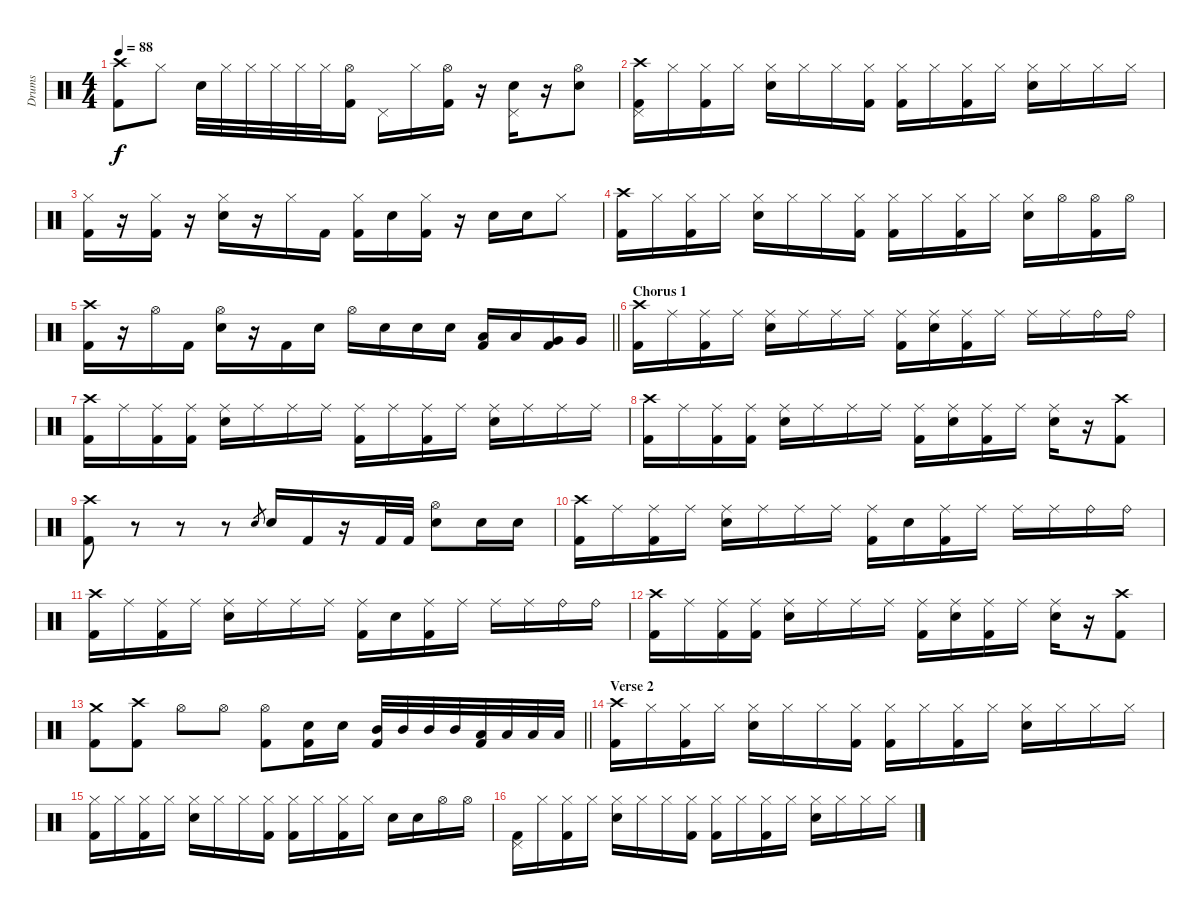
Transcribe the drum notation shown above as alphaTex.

\track ("Drums" "Drums") {instrument percussion}
\staff {score}
\articulation defaults
\ts (4 4)
\tempo 88
\clef neutral
\ks c
("Kick (hit) 2" "Crash high (hit)").8{dy f} "Hi-Hat (closed)".8 "Snare (hit) 2".32 "Hi-Hat (closed)".32 "Hi-Hat (closed)".32 "Hi-Hat (closed)".32 "Hi-Hat (closed)".32 "Hi-Hat (closed)".32 ("Kick (hit) 2" "Hi-Hat (open)").16 "Pedal Hi-Hat (hit)".16 "Hi-Hat (closed)".16 ("Kick (hit) 2" "Hi-Hat (open)").16 r.16 ("Snare (hit) 2" "Pedal Hi-Hat (hit)").16 r.16 ("Snare (hit) 2" "Hi-Hat (open)").8 |
("Pedal Hi-Hat (hit)" "Kick (hit) 2" "Crash high (hit)").16 "Hi-Hat (closed)".16 ("Kick (hit) 2" "Hi-Hat (closed)").16 "Hi-Hat (closed)".16 ("Snare (hit) 2" "Hi-Hat (closed)").16 "Hi-Hat (closed)".16 "Hi-Hat (closed)".16 ("Kick (hit) 2" "Hi-Hat (closed)").16 ("Kick (hit) 2" "Hi-Hat (closed)").16 "Hi-Hat (closed)".16 ("Kick (hit) 2" "Hi-Hat (closed)").16 "Hi-Hat (closed)".16 ("Snare (hit) 2" "Hi-Hat (closed)").16 "Hi-Hat (closed)".16 "Hi-Hat (closed)".16 "Hi-Hat (closed)".16 |
("Kick (hit) 2" "Hi-Hat (closed)").16 r.16 ("Kick (hit) 2" "Hi-Hat (closed)").16 r.16 ("Snare (hit) 2" "Hi-Hat (closed)").16 r.16 "Hi-Hat (closed)".16 "Kick (hit) 2".16 ("Kick (hit) 2" "Hi-Hat (closed)").16 "Snare (hit) 2".16 ("Kick (hit) 2" "Hi-Hat (closed)").16 r.16 "Snare (hit) 2".16 "Snare (hit) 2".16 "Hi-Hat (closed)".8 |
("Kick (hit) 2" "Crash high (hit)").16 "Hi-Hat (closed)".16 ("Kick (hit) 2" "Hi-Hat (closed)").16 "Hi-Hat (closed)".16 ("Snare (hit) 2" "Hi-Hat (closed)").16 "Hi-Hat (closed)".16 "Hi-Hat (closed)".16 ("Kick (hit) 2" "Hi-Hat (closed)").16 ("Kick (hit) 2" "Hi-Hat (closed)").16 "Hi-Hat (closed)".16 ("Kick (hit) 2" "Hi-Hat (closed)").16 "Hi-Hat (closed)".16 ("Snare (hit) 2" "Hi-Hat (closed)").16 "Hi-Hat (open)".16 ("Hi-Hat (open)" "Kick (hit) 2").16 "Hi-Hat (open)".16 |
\barLineRight lightlight
("Kick (hit) 2" "Crash high (hit)").16 r.16 "Hi-Hat (open)".16 "Kick (hit) 2".16 ("Snare (hit) 2" "Hi-Hat (open)").16 r.16 "Kick (hit) 2".16 "Snare (hit) 2".16 "Hi-Hat (open)".16 "Snare (hit) 2".16 "Snare (hit) 2".16 "Snare (hit) 2".16 ("Low Tom (hit)" "Kick (hit) 2").16 "Low Tom (hit)".16 ("Very Low Tom (hit)" "Kick (hit) 2").16 "Very Low Tom (hit)".16 |
\section ("" "Chorus 1")
("Kick (hit) 2" "Crash high (hit)").16 "Ride (middle)".16 ("Kick (hit) 2" "Ride (middle)").16 "Ride (middle)".16 ("Snare (hit) 2" "Ride (middle)").16 "Ride (middle)".16 "Ride (middle)".16 "Ride (middle)".16 ("Kick (hit) 2" "Ride (middle)").16 ("Snare (hit) 2" "Ride (middle)").16 ("Kick (hit) 2" "Ride (middle)").16 "Ride (middle)".16 "Ride (middle)".16 "Ride (middle)".16 "Ride (bell)".16 "Ride (bell)".16 |
("Kick (hit) 2" "Crash high (hit)").16 "Ride (middle)".16 ("Kick (hit) 2" "Ride (middle)").16 ("Ride (middle)" "Kick (hit) 2").16 ("Snare (hit) 2" "Ride (middle)").16 "Ride (middle)".16 "Ride (middle)".16 "Ride (middle)".16 ("Kick (hit) 2" "Ride (middle)").16 "Ride (middle)".16 ("Kick (hit) 2" "Ride (middle)").16 "Ride (middle)".16 ("Ride (middle)" "Snare (hit) 2").16 "Ride (middle)".16 "Ride (middle)".16 "Ride (middle)".16 |
("Kick (hit) 2" "Crash high (hit)").16 "Ride (middle)".16 ("Kick (hit) 2" "Ride (middle)").16 ("Ride (middle)" "Kick (hit) 2").16 ("Snare (hit) 2" "Ride (middle)").16 "Ride (middle)".16 "Ride (middle)".16 "Ride (middle)".16 ("Kick (hit) 2" "Ride (middle)").16 ("Ride (middle)" "Snare (hit) 2").16 ("Kick (hit) 2" "Ride (middle)").16 "Ride (middle)".16 ("Ride (middle)" "Snare (hit) 2").16 r.16 ("Kick (hit) 2" "Crash high (hit)").8 |
("Crash high (hit)" "Kick (hit) 2").8 r.8 r.8 r.8 "Snare (hit) 2".8{gr} "Snare (hit) 2".16 "Kick (hit) 2".16 r.16 "Kick (hit) 2".32 "Kick (hit) 2".32 ("Snare (hit) 2" "Hi-Hat (open)").8 "Snare (hit) 2".16 "Snare (hit) 2".16 |
("Kick (hit) 2" "Crash high (hit)").16 "Ride (middle)".16 ("Kick (hit) 2" "Ride (middle)").16 "Ride (middle)".16 ("Snare (hit) 2" "Ride (middle)").16 "Ride (middle)".16 "Ride (middle)".16 "Ride (middle)".16 ("Kick (hit) 2" "Ride (middle)").16 "Snare (hit) 2".16 ("Kick (hit) 2" "Ride (middle)").16 "Ride (middle)".16 "Ride (middle)".16 "Ride (middle)".16 "Ride (bell)".16 "Ride (bell)".16 |
("Kick (hit) 2" "Crash high (hit)").16 "Ride (middle)".16 ("Kick (hit) 2" "Ride (middle)").16 "Ride (middle)".16 ("Snare (hit) 2" "Ride (middle)").16 "Ride (middle)".16 "Ride (middle)".16 "Ride (middle)".16 ("Kick (hit) 2" "Ride (middle)").16 "Snare (hit) 2".16 ("Kick (hit) 2" "Ride (middle)").16 "Ride (middle)".16 "Ride (middle)".16 "Ride (middle)".16 "Ride (bell)".16 "Ride (bell)".16 |
("Kick (hit) 2" "Crash high (hit)").16 "Ride (middle)".16 ("Kick (hit) 2" "Ride (middle)").16 ("Ride (middle)" "Kick (hit) 2").16 ("Snare (hit) 2" "Ride (middle)").16 "Ride (middle)".16 "Ride (middle)".16 "Ride (middle)".16 ("Kick (hit) 2" "Ride (middle)").16 ("Ride (middle)" "Snare (hit) 2").16 ("Kick (hit) 2" "Ride (middle)").16 "Ride (middle)".16 ("Ride (middle)" "Snare (hit) 2").16 r.16 ("Kick (hit) 2" "Crash high (hit)").8 |
\barLineRight lightlight
("Kick (hit) 2" "Crash medium (hit)").8 ("Crash high (hit)" "Kick (hit) 2").8 "Hi-Hat (open)".8 "Hi-Hat (open)".8 ("Kick (hit) 2" "Hi-Hat (open)").8 ("Snare (hit) 2" "Kick (hit) 2").16 "Snare (hit) 2".16 ("Mid Tom (hit)" "Kick (hit) 2").32 "Mid Tom (hit)".32 "Mid Tom (hit)".32 "Mid Tom (hit)".32 ("Low Tom (hit)" "Kick (hit) 2").32 "Low Tom (hit)".32 "Low Tom (hit)".32 "Low Tom (hit)".32 |
\section ("" "Verse 2")
("Kick (hit) 2" "Crash high (hit)").16 "Hi-Hat (closed)".16 ("Kick (hit) 2" "Hi-Hat (closed)").16 "Hi-Hat (closed)".16 ("Snare (hit) 2" "Hi-Hat (closed)").16 "Hi-Hat (closed)".16 "Hi-Hat (closed)".16 ("Kick (hit) 2" "Hi-Hat (closed)").16 ("Kick (hit) 2" "Hi-Hat (closed)").16 "Hi-Hat (closed)".16 ("Kick (hit) 2" "Hi-Hat (closed)").16 "Hi-Hat (closed)".16 ("Snare (hit) 2" "Hi-Hat (closed)").16 "Hi-Hat (closed)".16 "Hi-Hat (closed)".16 "Hi-Hat (closed)".16 |
("Kick (hit) 2" "Hi-Hat (closed)").16 "Hi-Hat (closed)".16 ("Kick (hit) 2" "Hi-Hat (closed)").16 "Hi-Hat (closed)".16 ("Snare (hit) 2" "Hi-Hat (closed)").16 "Hi-Hat (closed)".16 "Hi-Hat (closed)".16 ("Kick (hit) 2" "Hi-Hat (closed)").16 ("Kick (hit) 2" "Hi-Hat (closed)").16 "Hi-Hat (closed)".16 ("Kick (hit) 2" "Hi-Hat (closed)").16 "Hi-Hat (closed)".16 "Snare (hit) 2".16 "Snare (hit) 2".16 "Hi-Hat (open)".16 "Hi-Hat (open)".16 |
("Pedal Hi-Hat (hit)" "Kick (hit) 2").16 "Hi-Hat (closed)".16 ("Kick (hit) 2" "Hi-Hat (closed)").16 "Hi-Hat (closed)".16 ("Snare (hit) 2" "Hi-Hat (closed)").16 "Hi-Hat (closed)".16 "Hi-Hat (closed)".16 ("Kick (hit) 2" "Hi-Hat (closed)").16 ("Kick (hit) 2" "Hi-Hat (closed)").16 "Hi-Hat (closed)".16 ("Kick (hit) 2" "Hi-Hat (closed)").16 "Hi-Hat (closed)".16 ("Snare (hit) 2" "Hi-Hat (closed)").16 "Hi-Hat (closed)".16 "Hi-Hat (closed)".16 "Hi-Hat (closed)".16
